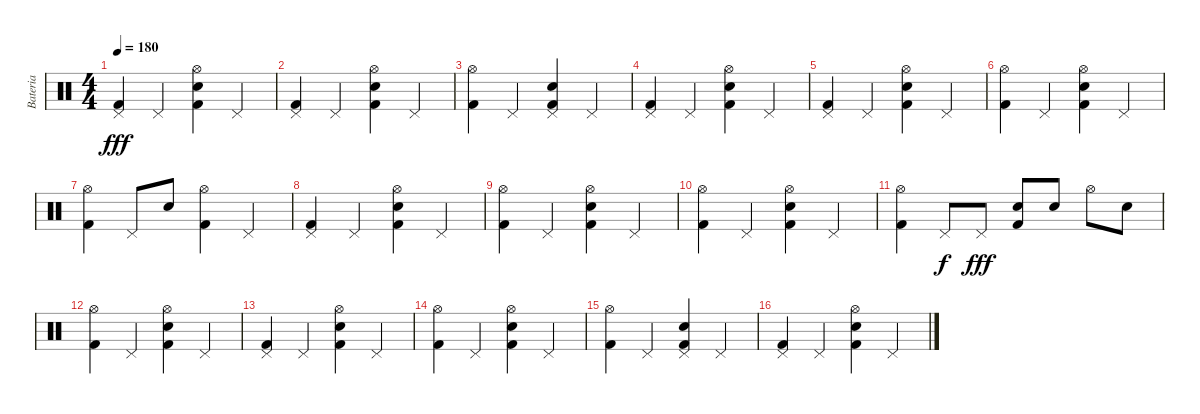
\track ("Bateria" "Bateria") {instrument percussion}
\staff {score}
\articulation defaults
\ts (4 4)
\tempo 180
\clef neutral
\ks c
("Pedal Hi-Hat (hit)" "Kick (hit) 2").4{dy fff} "Pedal Hi-Hat (hit)".4 ("Electric Snare (hit)" "Hi-Hat (open)" "Kick (hit) 2").4 "Pedal Hi-Hat (hit)".4 |
("Pedal Hi-Hat (hit)" "Kick (hit) 2").4 "Pedal Hi-Hat (hit)".4 ("Electric Snare (hit)" "Hi-Hat (open)" "Kick (hit) 2").4 "Pedal Hi-Hat (hit)".4 |
("Hi-Hat (open)" "Kick (hit) 2").4 "Pedal Hi-Hat (hit)".4 ("Electric Snare (hit)" "Pedal Hi-Hat (hit)" "Kick (hit) 2").4 "Pedal Hi-Hat (hit)".4 |
("Pedal Hi-Hat (hit)" "Kick (hit) 2").4 "Pedal Hi-Hat (hit)".4 ("Electric Snare (hit)" "Hi-Hat (open)" "Kick (hit) 2").4 "Pedal Hi-Hat (hit)".4 |
("Pedal Hi-Hat (hit)" "Kick (hit) 2").4 "Pedal Hi-Hat (hit)".4 ("Electric Snare (hit)" "Hi-Hat (open)" "Kick (hit) 2").4 "Pedal Hi-Hat (hit)".4 |
("Hi-Hat (open)" "Kick (hit) 2").4 "Pedal Hi-Hat (hit)".4 ("Electric Snare (hit)" "Hi-Hat (open)" "Kick (hit) 2").4 "Pedal Hi-Hat (hit)".4 |
("Hi-Hat (open)" "Kick (hit) 2").4 "Pedal Hi-Hat (hit)".8 "Electric Snare (hit)".8 ("Hi-Hat (open)" "Kick (hit) 2").4 "Pedal Hi-Hat (hit)".4 |
("Pedal Hi-Hat (hit)" "Kick (hit) 2").4 "Pedal Hi-Hat (hit)".4 ("Electric Snare (hit)" "Hi-Hat (open)" "Kick (hit) 2").4 "Pedal Hi-Hat (hit)".4 |
("Hi-Hat (open)" "Kick (hit) 2").4 "Pedal Hi-Hat (hit)".4 ("Electric Snare (hit)" "Hi-Hat (open)" "Kick (hit) 2").4 "Pedal Hi-Hat (hit)".4 |
("Hi-Hat (open)" "Kick (hit) 2").4 "Pedal Hi-Hat (hit)".4 ("Electric Snare (hit)" "Hi-Hat (open)" "Kick (hit) 2").4 "Pedal Hi-Hat (hit)".4 |
("Hi-Hat (open)" "Kick (hit) 2").4 "Pedal Hi-Hat (hit)".8{dy f} "Pedal Hi-Hat (hit)".8{dy fff} ("Electric Snare (hit)" "Kick (hit) 2").8 "Electric Snare (hit)".8 "Hi-Hat (open)".8 "Electric Snare (hit)".8 |
("Hi-Hat (open)" "Kick (hit) 2").4 "Pedal Hi-Hat (hit)".4 ("Electric Snare (hit)" "Hi-Hat (open)" "Kick (hit) 2").4 "Pedal Hi-Hat (hit)".4 |
("Pedal Hi-Hat (hit)" "Kick (hit) 2").4 "Pedal Hi-Hat (hit)".4 ("Electric Snare (hit)" "Hi-Hat (open)" "Kick (hit) 2").4 "Pedal Hi-Hat (hit)".4 |
("Hi-Hat (open)" "Kick (hit) 2").4 "Pedal Hi-Hat (hit)".4 ("Electric Snare (hit)" "Hi-Hat (open)" "Kick (hit) 2").4 "Pedal Hi-Hat (hit)".4 |
("Hi-Hat (open)" "Kick (hit) 2").4 "Pedal Hi-Hat (hit)".4 ("Electric Snare (hit)" "Pedal Hi-Hat (hit)" "Kick (hit) 2").4 "Pedal Hi-Hat (hit)".4 |
("Pedal Hi-Hat (hit)" "Kick (hit) 2").4 "Pedal Hi-Hat (hit)".4 ("Electric Snare (hit)" "Hi-Hat (open)" "Kick (hit) 2").4 "Pedal Hi-Hat (hit)".4
